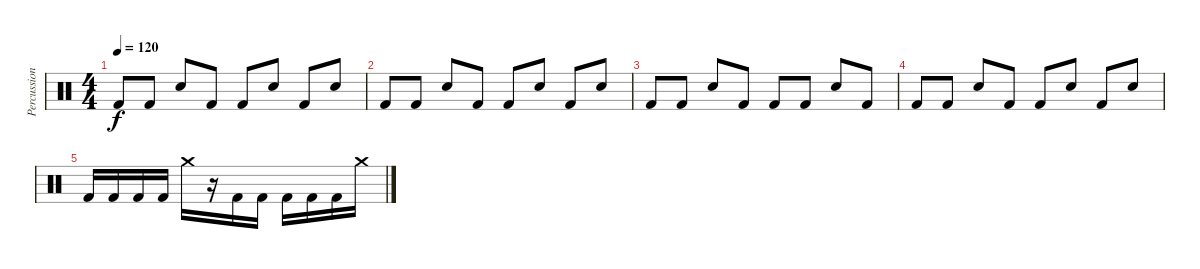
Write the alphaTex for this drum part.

\track ("Percussion" "Percussion") {solo instrument percussion}
\staff {score}
\articulation defaults
\ts (4 4)
\tempo 120
\clef neutral
\ks c "Kick (hit) 2".8{dy f} "Kick (hit) 2".8 "Snare (hit) 2".8 "Kick (hit) 2".8 "Kick (hit) 2".8 "Snare (hit) 2".8 "Kick (hit) 2".8 "Snare (hit) 2".8
|
"Kick (hit) 2".8 "Kick (hit) 2".8 "Snare (hit) 2".8 "Kick (hit) 2".8 "Kick (hit) 2".8 "Snare (hit) 2".8 "Kick (hit) 2".8 "Snare (hit) 2".8 |
"Kick (hit) 2".8 "Kick (hit) 2".8 "Snare (hit) 2".8 "Kick (hit) 2".8 "Kick (hit) 2".8 "Kick (hit) 2".8 "Snare (hit) 2".8 "Kick (hit) 2".8 |
"Kick (hit) 2".8 "Kick (hit) 2".8 "Snare (hit) 2".8 "Kick (hit) 2".8 "Kick (hit) 2".8 "Snare (hit) 2".8 "Kick (hit) 2".8 "Snare (hit) 2".8 |
"Kick (hit) 2".16 "Kick (hit) 2".16 "Kick (hit) 2".16 "Kick (hit) 2".16 "Crash medium (hit)".16 r.16 "Kick (hit) 2".16 "Kick (hit) 2".16 "Kick (hit) 2".16 "Kick (hit) 2".16 "Kick (hit) 2".16 "Crash medium (hit)".16
